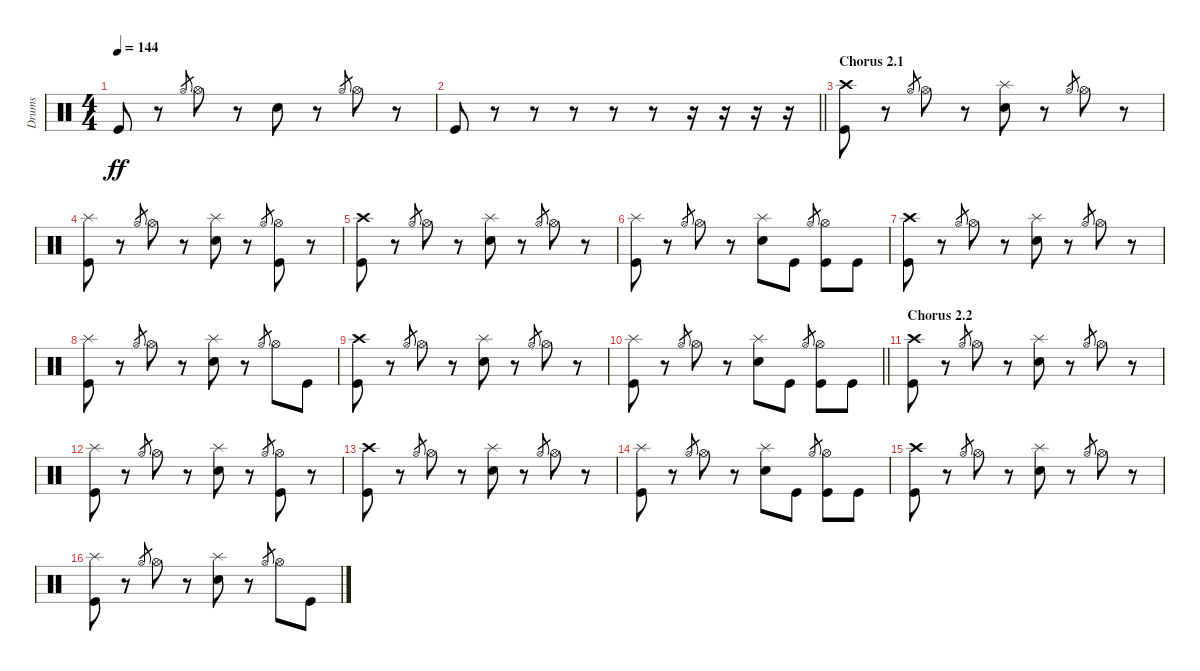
\track ("Drums" "Drums") {instrument percussion}
\staff {score}
\articulation defaults
\ts (4 4)
\tempo 144
\clef neutral
\ks c "Kick (hit)".8{dy ff}
r.8 "Hi-Hat (open)".8{gr} "Hi-Hat (open)".8 r.8 "Snare (hit) 2".8 r.8 "Hi-Hat (open)".8{gr} "Hi-Hat (open)".8 r.8 |
\barLineRight lightlight "Kick (hit)".8
r.8 r.8 r.8 r.8 r.8 r.16 r.16 r.16 r.16 |
\section ("" "Chorus 2.1")
("Crash high (hit)" "Kick (hit)").8 r.8 "Hi-Hat (open)".8{gr} "Hi-Hat (open)".8 r.8 ("Splash (hit)" "Snare (hit) 2").8 r.8 "Hi-Hat (open)".8{gr} "Hi-Hat (open)".8 r.8 |
("Splash (hit)" "Kick (hit)").8 r.8 "Hi-Hat (open)".8{gr} "Hi-Hat (open)".8 r.8 ("Splash (hit)" "Snare (hit) 2").8 r.8 "Hi-Hat (open)".8{gr} ("Hi-Hat (open)" "Kick (hit)").8 r.8 |
("Crash high (hit)" "Kick (hit)").8 r.8 "Hi-Hat (open)".8{gr} "Hi-Hat (open)".8 r.8 ("Splash (hit)" "Snare (hit) 2").8 r.8 "Hi-Hat (open)".8{gr} "Hi-Hat (open)".8 r.8 |
("Splash (hit)" "Kick (hit)").8 r.8 "Hi-Hat (open)".8{gr} "Hi-Hat (open)".8 r.8 ("Splash (hit)" "Snare (hit) 2").8 "Kick (hit)".8 "Hi-Hat (open)".8{gr} ("Hi-Hat (open)" "Kick (hit)").8 "Kick (hit)".8 |
("Crash high (hit)" "Kick (hit)").8 r.8 "Hi-Hat (open)".8{gr} "Hi-Hat (open)".8 r.8 ("Splash (hit)" "Snare (hit) 2").8 r.8 "Hi-Hat (open)".8{gr} "Hi-Hat (open)".8 r.8 |
("Splash (hit)" "Kick (hit)").8 r.8 "Hi-Hat (open)".8{gr} "Hi-Hat (open)".8 r.8 ("Splash (hit)" "Snare (hit) 2").8 r.8 "Hi-Hat (open)".8{gr} "Hi-Hat (open)".8 "Kick (hit)".8 |
("Crash high (hit)" "Kick (hit)").8 r.8 "Hi-Hat (open)".8{gr} "Hi-Hat (open)".8 r.8 ("Splash (hit)" "Snare (hit) 2").8 r.8 "Hi-Hat (open)".8{gr} "Hi-Hat (open)".8 r.8 |
\barLineRight lightlight
("Splash (hit)" "Kick (hit)").8 r.8 "Hi-Hat (open)".8{gr} "Hi-Hat (open)".8 r.8 ("Splash (hit)" "Snare (hit) 2").8 "Kick (hit)".8 "Hi-Hat (open)".8{gr} ("Hi-Hat (open)" "Kick (hit)").8 "Kick (hit)".8 |
\section ("" "Chorus 2.2")
("Crash high (hit)" "Kick (hit)").8 r.8 "Hi-Hat (open)".8{gr} "Hi-Hat (open)".8 r.8 ("Splash (hit)" "Snare (hit) 2").8 r.8 "Hi-Hat (open)".8{gr} "Hi-Hat (open)".8 r.8 |
("Splash (hit)" "Kick (hit)").8 r.8 "Hi-Hat (open)".8{gr} "Hi-Hat (open)".8 r.8 ("Splash (hit)" "Snare (hit) 2").8 r.8 "Hi-Hat (open)".8{gr} ("Hi-Hat (open)" "Kick (hit)").8 r.8 |
("Crash high (hit)" "Kick (hit)").8 r.8 "Hi-Hat (open)".8{gr} "Hi-Hat (open)".8 r.8 ("Splash (hit)" "Snare (hit) 2").8 r.8 "Hi-Hat (open)".8{gr} "Hi-Hat (open)".8 r.8 |
("Splash (hit)" "Kick (hit)").8 r.8 "Hi-Hat (open)".8{gr} "Hi-Hat (open)".8 r.8 ("Splash (hit)" "Snare (hit) 2").8 "Kick (hit)".8 "Hi-Hat (open)".8{gr} ("Hi-Hat (open)" "Kick (hit)").8 "Kick (hit)".8 |
("Crash high (hit)" "Kick (hit)").8 r.8 "Hi-Hat (open)".8{gr} "Hi-Hat (open)".8 r.8 ("Splash (hit)" "Snare (hit) 2").8 r.8 "Hi-Hat (open)".8{gr} "Hi-Hat (open)".8 r.8 |
("Splash (hit)" "Kick (hit)").8 r.8 "Hi-Hat (open)".8{gr} "Hi-Hat (open)".8 r.8 ("Splash (hit)" "Snare (hit) 2").8 r.8 "Hi-Hat (open)".8{gr} "Hi-Hat (open)".8 "Kick (hit)".8
